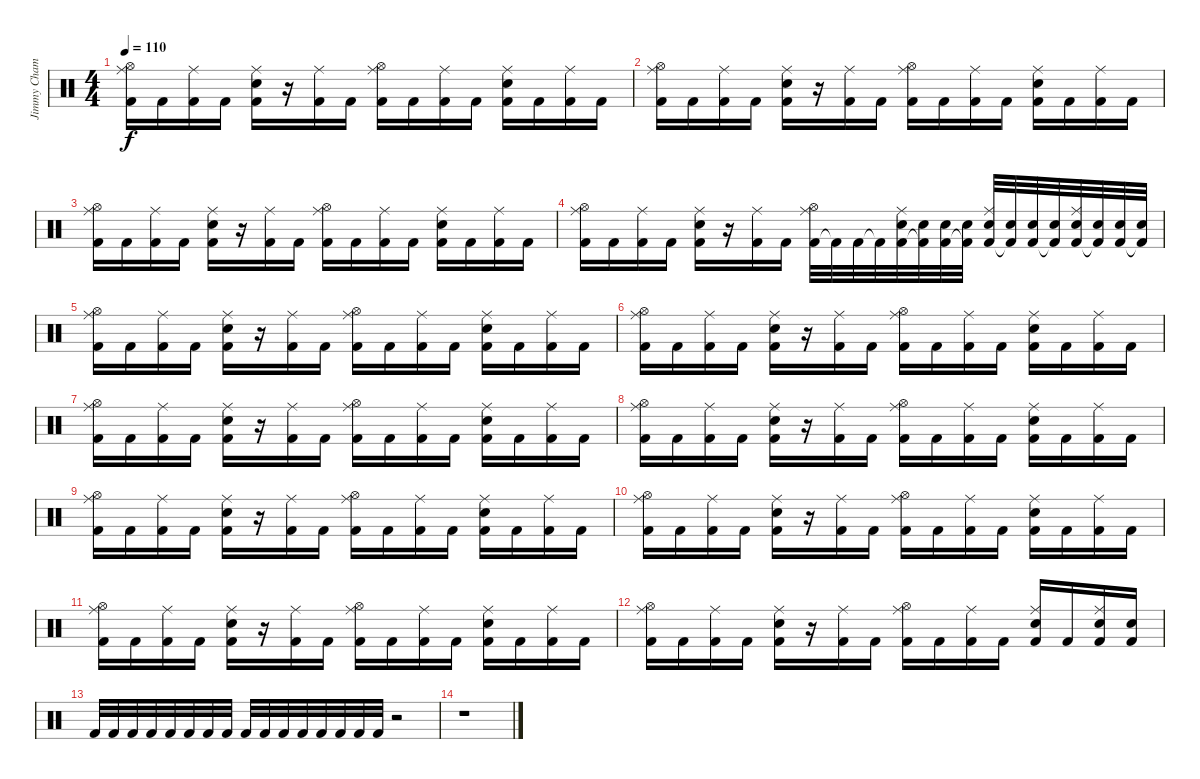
\track ("Jimmy Chamberlin" "Jimmy Cham") {instrument percussion}
\staff {score}
\articulation defaults
\ts (4 4)
\tempo 110
\clef neutral
\ks c
("Kick (hit) 2" "Hi-Hat (open)" "Ride (middle)").16{dy f} "Kick (hit) 2".16 ("Kick (hit) 2" "Ride (middle)").16 "Kick (hit) 2".16 ("Kick (hit) 2" "Snare (hit) 2" "Ride (middle)").16 r.16 ("Kick (hit) 2" "Ride (middle)").16 "Kick (hit) 2".16 ("Kick (hit) 2" "Hi-Hat (open)" "Ride (middle)").16 "Kick (hit) 2".16 ("Kick (hit) 2" "Ride (middle)").16 "Kick (hit) 2".16 ("Kick (hit) 2" "Snare (hit) 2" "Ride (middle)").16 "Kick (hit) 2".16 ("Kick (hit) 2" "Ride (middle)").16 "Kick (hit) 2".16 |
("Kick (hit) 2" "Hi-Hat (open)" "Ride (middle)").16 "Kick (hit) 2".16 ("Kick (hit) 2" "Ride (middle)").16 "Kick (hit) 2".16 ("Kick (hit) 2" "Snare (hit) 2" "Ride (middle)").16 r.16 ("Kick (hit) 2" "Ride (middle)").16 "Kick (hit) 2".16 ("Kick (hit) 2" "Hi-Hat (open)" "Ride (middle)").16 "Kick (hit) 2".16 ("Kick (hit) 2" "Ride (middle)").16 "Kick (hit) 2".16 ("Kick (hit) 2" "Snare (hit) 2" "Ride (middle)").16 "Kick (hit) 2".16 ("Kick (hit) 2" "Ride (middle)").16 "Kick (hit) 2".16 |
("Kick (hit) 2" "Hi-Hat (open)" "Ride (middle)").16 "Kick (hit) 2".16 ("Kick (hit) 2" "Ride (middle)").16 "Kick (hit) 2".16 ("Kick (hit) 2" "Snare (hit) 2" "Ride (middle)").16 r.16 ("Kick (hit) 2" "Ride (middle)").16 "Kick (hit) 2".16 ("Kick (hit) 2" "Hi-Hat (open)" "Ride (middle)").16 "Kick (hit) 2".16 ("Kick (hit) 2" "Ride (middle)").16 "Kick (hit) 2".16 ("Kick (hit) 2" "Snare (hit) 2" "Ride (middle)").16 "Kick (hit) 2".16 ("Kick (hit) 2" "Ride (middle)").16 "Kick (hit) 2".16 |
("Kick (hit) 2" "Hi-Hat (open)" "Ride (middle)").16 "Kick (hit) 2".16 ("Kick (hit) 2" "Ride (middle)").16 "Kick (hit) 2".16 ("Kick (hit) 2" "Snare (hit) 2" "Ride (middle)").16 r.16 ("Kick (hit) 2" "Ride (middle)").16 "Kick (hit) 2".16 ("Kick (hit) 2" "Hi-Hat (open)" "Ride (middle)").32 "Kick (hit) 2"{t}.32 "Kick (hit) 2".32 "Kick (hit) 2"{t}.32 ("Kick (hit) 2" "Snare (hit) 2" "Ride (middle)").32 ("Kick (hit) 2"{t} "Snare (hit) 2").32 ("Kick (hit) 2" "Snare (hit) 2").32 ("Kick (hit) 2"{t} "Snare (hit) 2").32 ("Kick (hit) 2" "Snare (hit) 2" "Ride (middle)").32 ("Kick (hit) 2"{t} "Snare (hit) 2").32 ("Kick (hit) 2" "Snare (hit) 2").32 ("Kick (hit) 2"{t} "Snare (hit) 2").32 ("Kick (hit) 2" "Snare (hit) 2" "Ride (middle)").32 ("Kick (hit) 2"{t} "Snare (hit) 2").32 ("Kick (hit) 2" "Snare (hit) 2").32 ("Kick (hit) 2"{t} "Snare (hit) 2").32 |
("Kick (hit) 2" "Hi-Hat (open)" "Ride (middle)").16 "Kick (hit) 2".16 ("Kick (hit) 2" "Ride (middle)").16 "Kick (hit) 2".16 ("Kick (hit) 2" "Snare (hit) 2" "Ride (middle)").16 r.16 ("Kick (hit) 2" "Ride (middle)").16 "Kick (hit) 2".16 ("Kick (hit) 2" "Hi-Hat (open)" "Ride (middle)").16 "Kick (hit) 2".16 ("Kick (hit) 2" "Ride (middle)").16 "Kick (hit) 2".16 ("Kick (hit) 2" "Snare (hit) 2" "Ride (middle)").16 "Kick (hit) 2".16 ("Kick (hit) 2" "Ride (middle)").16 "Kick (hit) 2".16 |
("Kick (hit) 2" "Hi-Hat (open)" "Ride (middle)").16 "Kick (hit) 2".16 ("Kick (hit) 2" "Ride (middle)").16 "Kick (hit) 2".16 ("Kick (hit) 2" "Snare (hit) 2" "Ride (middle)").16 r.16 ("Kick (hit) 2" "Ride (middle)").16 "Kick (hit) 2".16 ("Kick (hit) 2" "Hi-Hat (open)" "Ride (middle)").16 "Kick (hit) 2".16 ("Kick (hit) 2" "Ride (middle)").16 "Kick (hit) 2".16 ("Kick (hit) 2" "Snare (hit) 2" "Ride (middle)").16 "Kick (hit) 2".16 ("Kick (hit) 2" "Ride (middle)").16 "Kick (hit) 2".16 |
("Kick (hit) 2" "Hi-Hat (open)" "Ride (middle)").16 "Kick (hit) 2".16 ("Kick (hit) 2" "Ride (middle)").16 "Kick (hit) 2".16 ("Kick (hit) 2" "Snare (hit) 2" "Ride (middle)").16 r.16 ("Kick (hit) 2" "Ride (middle)").16 "Kick (hit) 2".16 ("Kick (hit) 2" "Hi-Hat (open)" "Ride (middle)").16 "Kick (hit) 2".16 ("Kick (hit) 2" "Ride (middle)").16 "Kick (hit) 2".16 ("Kick (hit) 2" "Snare (hit) 2" "Ride (middle)").16 "Kick (hit) 2".16 ("Kick (hit) 2" "Ride (middle)").16 "Kick (hit) 2".16 |
("Kick (hit) 2" "Hi-Hat (open)" "Ride (middle)").16 "Kick (hit) 2".16 ("Kick (hit) 2" "Ride (middle)").16 "Kick (hit) 2".16 ("Kick (hit) 2" "Snare (hit) 2" "Ride (middle)").16 r.16 ("Kick (hit) 2" "Ride (middle)").16 "Kick (hit) 2".16 ("Kick (hit) 2" "Hi-Hat (open)" "Ride (middle)").16 "Kick (hit) 2".16 ("Kick (hit) 2" "Ride (middle)").16 "Kick (hit) 2".16 ("Kick (hit) 2" "Snare (hit) 2" "Ride (middle)").16 "Kick (hit) 2".16 ("Kick (hit) 2" "Ride (middle)").16 "Kick (hit) 2".16 |
("Kick (hit) 2" "Hi-Hat (open)" "Ride (middle)").16 "Kick (hit) 2".16 ("Kick (hit) 2" "Ride (middle)").16 "Kick (hit) 2".16 ("Kick (hit) 2" "Snare (hit) 2" "Ride (middle)").16 r.16 ("Kick (hit) 2" "Ride (middle)").16 "Kick (hit) 2".16 ("Kick (hit) 2" "Hi-Hat (open)" "Ride (middle)").16 "Kick (hit) 2".16 ("Kick (hit) 2" "Ride (middle)").16 "Kick (hit) 2".16 ("Kick (hit) 2" "Snare (hit) 2" "Ride (middle)").16 "Kick (hit) 2".16 ("Kick (hit) 2" "Ride (middle)").16 "Kick (hit) 2".16 |
("Kick (hit) 2" "Hi-Hat (open)" "Ride (middle)").16 "Kick (hit) 2".16 ("Kick (hit) 2" "Ride (middle)").16 "Kick (hit) 2".16 ("Kick (hit) 2" "Snare (hit) 2" "Ride (middle)").16 r.16 ("Kick (hit) 2" "Ride (middle)").16 "Kick (hit) 2".16 ("Kick (hit) 2" "Hi-Hat (open)" "Ride (middle)").16 "Kick (hit) 2".16 ("Kick (hit) 2" "Ride (middle)").16 "Kick (hit) 2".16 ("Kick (hit) 2" "Snare (hit) 2" "Ride (middle)").16 "Kick (hit) 2".16 ("Kick (hit) 2" "Ride (middle)").16 "Kick (hit) 2".16 |
("Kick (hit) 2" "Hi-Hat (open)" "Ride (middle)").16 "Kick (hit) 2".16 ("Kick (hit) 2" "Ride (middle)").16 "Kick (hit) 2".16 ("Kick (hit) 2" "Snare (hit) 2" "Ride (middle)").16 r.16 ("Kick (hit) 2" "Ride (middle)").16 "Kick (hit) 2".16 ("Kick (hit) 2" "Hi-Hat (open)" "Ride (middle)").16 "Kick (hit) 2".16 ("Kick (hit) 2" "Ride (middle)").16 "Kick (hit) 2".16 ("Kick (hit) 2" "Snare (hit) 2" "Ride (middle)").16 "Kick (hit) 2".16 ("Kick (hit) 2" "Ride (middle)").16 "Kick (hit) 2".16 |
("Kick (hit) 2" "Hi-Hat (open)" "Ride (middle)").16 "Kick (hit) 2".16 ("Kick (hit) 2" "Ride (middle)").16 "Kick (hit) 2".16 ("Kick (hit) 2" "Snare (hit) 2" "Ride (middle)").16 r.16 ("Kick (hit) 2" "Ride (middle)").16 "Kick (hit) 2".16 ("Kick (hit) 2" "Hi-Hat (open)" "Ride (middle)").16 "Kick (hit) 2".16 ("Kick (hit) 2" "Ride (middle)").16 "Kick (hit) 2".16 ("Kick (hit) 2" "Snare (hit) 2" "Ride (middle)").16 "Kick (hit) 2".16 ("Kick (hit) 2" "Snare (hit) 2" "Ride (middle)").16 ("Kick (hit) 2" "Snare (hit) 2").16 |
"Kick (hit) 2".32 "Kick (hit) 2".32 "Kick (hit) 2".32 "Kick (hit) 2".32 "Kick (hit) 2".32 "Kick (hit) 2".32 "Kick (hit) 2".32 "Kick (hit) 2".32 "Kick (hit) 2".32 "Kick (hit) 2".32 "Kick (hit) 2".32 "Kick (hit) 2".32 "Kick (hit) 2".32 "Kick (hit) 2".32 "Kick (hit) 2".32 "Kick (hit) 2".32 r.2 |
r.1
